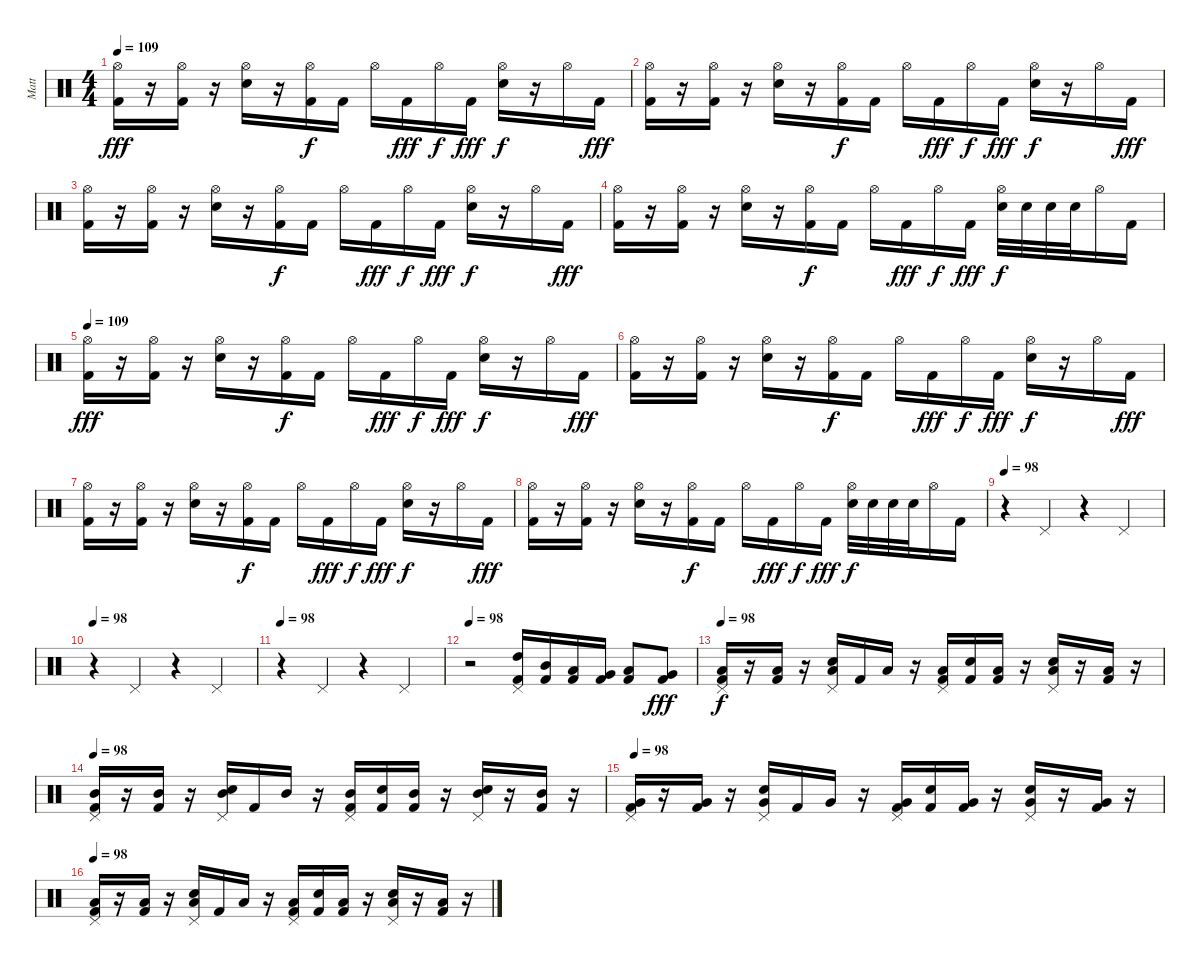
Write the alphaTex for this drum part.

\track ("Matt" "Matt") {instrument percussion}
\staff {score}
\articulation defaults
\ts (4 4)
\tempo 109
\clef neutral
\ks c
("Hi-Hat (open)" "Kick (hit) 2").16{dy fff} r.16 ("Hi-Hat (open)" "Kick (hit) 2").16 r.16 ("Hi-Hat (open)" "Snare (hit) 2").16 r.16 ("Hi-Hat (open)" "Kick (hit) 2").16{dy f} "Kick (hit) 2".16 "Hi-Hat (open)".16 "Kick (hit) 2".16{dy fff} "Hi-Hat (open)".16{dy f} "Kick (hit) 2".16{dy fff} ("Hi-Hat (open)" "Snare (hit) 2").16{dy f} r.16 "Hi-Hat (open)".16 "Kick (hit) 2".16{dy fff} |
("Hi-Hat (open)" "Kick (hit) 2").16 r.16 ("Hi-Hat (open)" "Kick (hit) 2").16 r.16 ("Hi-Hat (open)" "Snare (hit) 2").16 r.16 ("Hi-Hat (open)" "Kick (hit) 2").16{dy f} "Kick (hit) 2".16 "Hi-Hat (open)".16 "Kick (hit) 2".16{dy fff} "Hi-Hat (open)".16{dy f} "Kick (hit) 2".16{dy fff} ("Hi-Hat (open)" "Snare (hit) 2").16{dy f} r.16 "Hi-Hat (open)".16 "Kick (hit) 2".16{dy fff} |
("Hi-Hat (open)" "Kick (hit) 2").16 r.16 ("Hi-Hat (open)" "Kick (hit) 2").16 r.16 ("Hi-Hat (open)" "Snare (hit) 2").16 r.16 ("Hi-Hat (open)" "Kick (hit) 2").16{dy f} "Kick (hit) 2".16 "Hi-Hat (open)".16 "Kick (hit) 2".16{dy fff} "Hi-Hat (open)".16{dy f} "Kick (hit) 2".16{dy fff} ("Hi-Hat (open)" "Snare (hit) 2").16{dy f} r.16 "Hi-Hat (open)".16 "Kick (hit) 2".16{dy fff} |
("Hi-Hat (open)" "Kick (hit) 2").16 r.16 ("Hi-Hat (open)" "Kick (hit) 2").16 r.16 ("Hi-Hat (open)" "Snare (hit) 2").16 r.16 ("Hi-Hat (open)" "Kick (hit) 2").16{dy f} "Kick (hit) 2".16 "Hi-Hat (open)".16 "Kick (hit) 2".16{dy fff} "Hi-Hat (open)".16{dy f} "Kick (hit) 2".16{dy fff} ("Hi-Hat (open)" "Snare (hit) 2").32{dy f} "Snare (hit) 2".32 "Snare (hit) 2".32 "Snare (hit) 2".32 "Hi-Hat (open)".16 "Kick (hit) 2".16 |
\tempo 109
("Hi-Hat (open)" "Kick (hit) 2").16{dy fff} r.16 ("Hi-Hat (open)" "Kick (hit) 2").16 r.16 ("Hi-Hat (open)" "Snare (hit) 2").16 r.16 ("Hi-Hat (open)" "Kick (hit) 2").16{dy f} "Kick (hit) 2".16 "Hi-Hat (open)".16 "Kick (hit) 2".16{dy fff} "Hi-Hat (open)".16{dy f} "Kick (hit) 2".16{dy fff} ("Hi-Hat (open)" "Snare (hit) 2").16{dy f} r.16 "Hi-Hat (open)".16 "Kick (hit) 2".16{dy fff} |
("Hi-Hat (open)" "Kick (hit) 2").16 r.16 ("Hi-Hat (open)" "Kick (hit) 2").16 r.16 ("Hi-Hat (open)" "Snare (hit) 2").16 r.16 ("Hi-Hat (open)" "Kick (hit) 2").16{dy f} "Kick (hit) 2".16 "Hi-Hat (open)".16 "Kick (hit) 2".16{dy fff} "Hi-Hat (open)".16{dy f} "Kick (hit) 2".16{dy fff} ("Hi-Hat (open)" "Snare (hit) 2").16{dy f} r.16 "Hi-Hat (open)".16 "Kick (hit) 2".16{dy fff} |
("Hi-Hat (open)" "Kick (hit) 2").16 r.16 ("Hi-Hat (open)" "Kick (hit) 2").16 r.16 ("Hi-Hat (open)" "Snare (hit) 2").16 r.16 ("Hi-Hat (open)" "Kick (hit) 2").16{dy f} "Kick (hit) 2".16 "Hi-Hat (open)".16 "Kick (hit) 2".16{dy fff} "Hi-Hat (open)".16{dy f} "Kick (hit) 2".16{dy fff} ("Hi-Hat (open)" "Snare (hit) 2").16{dy f} r.16 "Hi-Hat (open)".16 "Kick (hit) 2".16{dy fff} |
("Hi-Hat (open)" "Kick (hit) 2").16 r.16 ("Hi-Hat (open)" "Kick (hit) 2").16 r.16 ("Hi-Hat (open)" "Snare (hit) 2").16 r.16 ("Hi-Hat (open)" "Kick (hit) 2").16{dy f} "Kick (hit) 2".16 "Hi-Hat (open)".16 "Kick (hit) 2".16{dy fff} "Hi-Hat (open)".16{dy f} "Kick (hit) 2".16{dy fff} ("Hi-Hat (open)" "Snare (hit) 2").32{dy f} "Snare (hit) 2".32 "Snare (hit) 2".32 "Snare (hit) 2".32 "Hi-Hat (open)".16 "Kick (hit) 2".16 |
\tempo 98
r.4 "Pedal Hi-Hat (hit)".4 r.4 "Pedal Hi-Hat (hit)".4 |
\tempo 98
r.4 "Pedal Hi-Hat (hit)".4 r.4 "Pedal Hi-Hat (hit)".4 |
\tempo 98
r.4 "Pedal Hi-Hat (hit)".4 r.4 "Pedal Hi-Hat (hit)".4 |
\tempo 98
r.2 ("Pedal Hi-Hat (hit)" "High Tom (hit)" "Kick (hit) 2").16 ("Mid Tom (hit)" "Kick (hit) 2").16 ("Low Tom (hit)" "Kick (hit) 2").16 ("Very Low Tom (hit)" "Kick (hit) 2").16 ("Low Floor Tom (hit)" "Kick (hit) 2").8 ("Very Low Tom (hit)" "Kick (hit) 2").8{dy fff} |
\tempo 98
("Pedal Hi-Hat (hit)" "Low Tom (hit)" "Kick (hit) 2").16{dy f} r.16 ("Low Tom (hit)" "Kick (hit) 2").16 r.16 ("Pedal Hi-Hat (hit)" "Low Tom (hit)" "Snare (hit) 2").16 "Kick (hit) 2".16 "Low Tom (hit)".16 r.16 ("Pedal Hi-Hat (hit)" "Low Tom (hit)" "Kick (hit) 2").16 ("Snare (hit) 2" "Kick (hit) 2").16 ("Low Tom (hit)" "Kick (hit) 2").16 r.16 ("Pedal Hi-Hat (hit)" "Low Tom (hit)" "Snare (hit) 2").16 r.16 ("Low Tom (hit)" "Kick (hit) 2").16 r.16 |
\tempo 98
("Pedal Hi-Hat (hit)" "Mid Tom (hit)" "Kick (hit) 2").16 r.16 ("Mid Tom (hit)" "Kick (hit) 2").16 r.16 ("Pedal Hi-Hat (hit)" "Mid Tom (hit)" "Snare (hit) 2").16 "Kick (hit) 2".16 "Mid Tom (hit)".16 r.16 ("Pedal Hi-Hat (hit)" "Mid Tom (hit)" "Kick (hit) 2").16 ("Snare (hit) 2" "Kick (hit) 2").16 ("Mid Tom (hit)" "Kick (hit) 2").16 r.16 ("Pedal Hi-Hat (hit)" "Mid Tom (hit)" "Snare (hit) 2").16 r.16 ("Mid Tom (hit)" "Kick (hit) 2").16 r.16 |
\tempo 98
("Pedal Hi-Hat (hit)" "Very Low Tom (hit)" "Kick (hit) 2").16 r.16 ("Very Low Tom (hit)" "Kick (hit) 2").16 r.16 ("Pedal Hi-Hat (hit)" "Very Low Tom (hit)" "Snare (hit) 2").16 "Kick (hit) 2".16 "Very Low Tom (hit)".16 r.16 ("Pedal Hi-Hat (hit)" "Very Low Tom (hit)" "Kick (hit) 2").16 ("Snare (hit) 2" "Kick (hit) 2").16 ("Very Low Tom (hit)" "Kick (hit) 2").16 r.16 ("Pedal Hi-Hat (hit)" "Very Low Tom (hit)" "Snare (hit) 2").16 r.16 ("Very Low Tom (hit)" "Kick (hit) 2").16 r.16 |
\tempo 98
("Pedal Hi-Hat (hit)" "Low Floor Tom (hit)" "Kick (hit) 2").16 r.16 ("Low Floor Tom (hit)" "Kick (hit) 2").16 r.16 ("Pedal Hi-Hat (hit)" "Low Floor Tom (hit)" "Snare (hit) 2").16 "Kick (hit) 2".16 "Low Floor Tom (hit)".16 r.16 ("Pedal Hi-Hat (hit)" "Low Floor Tom (hit)" "Kick (hit) 2").16 ("Snare (hit) 2" "Kick (hit) 2").16 ("Low Floor Tom (hit)" "Kick (hit) 2").16 r.16 ("Pedal Hi-Hat (hit)" "Low Floor Tom (hit)" "Snare (hit) 2").16 r.16 ("Low Floor Tom (hit)" "Kick (hit) 2").16 r.16
